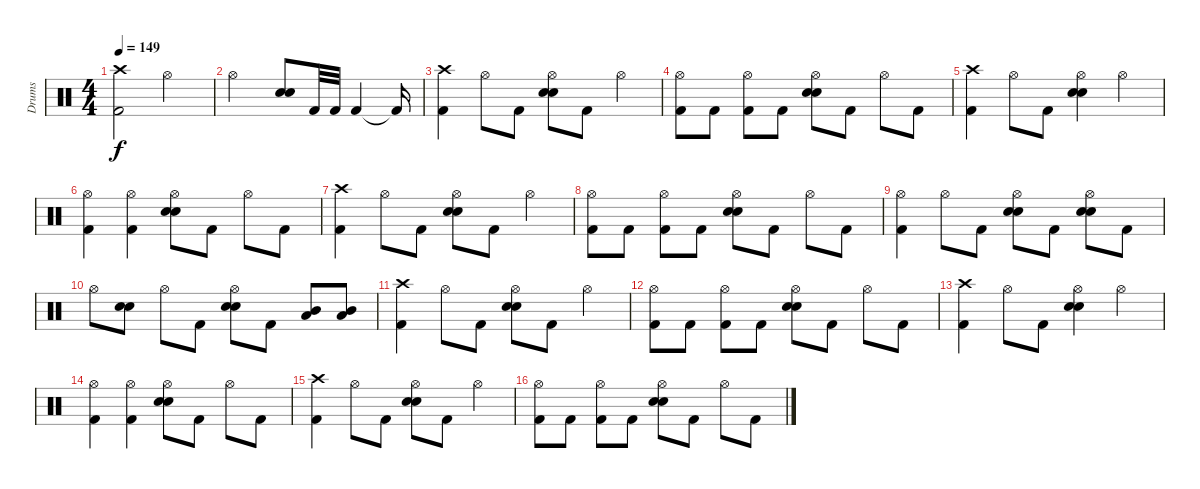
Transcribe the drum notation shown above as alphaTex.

\track ("Drums" "Drums") {instrument percussion}
\staff {score}
\articulation defaults
\ts (4 4)
\tempo 149
\clef neutral
\ks c
("Kick (hit) 2" "Crash high (hit)").2{dy f} "Hi-Hat (open)".2 |
"Hi-Hat (open)".2 ("Electric Snare (hit)" "Snare (hit) 2").8 "Kick (hit) 2".32 "Kick (hit) 2".32 "Kick (hit) 2".4 "Kick (hit) 2"{t}.16 |
("Kick (hit) 2" "Crash high (hit)").4 "Hi-Hat (open)".8 "Kick (hit) 2".8 ("Electric Snare (hit)" "Snare (hit) 2" "Hi-Hat (open)").8 "Kick (hit) 2".8 "Hi-Hat (open)".4 |
("Kick (hit) 2" "Hi-Hat (open)").8 "Kick (hit) 2".8 ("Kick (hit) 2" "Hi-Hat (open)").8 "Kick (hit) 2".8 ("Electric Snare (hit)" "Snare (hit) 2" "Hi-Hat (open)").8 "Kick (hit) 2".8 "Hi-Hat (open)".8 "Kick (hit) 2".8 |
("Kick (hit) 2" "Crash high (hit)").4 "Hi-Hat (open)".8 "Kick (hit) 2".8 ("Electric Snare (hit)" "Snare (hit) 2" "Hi-Hat (open)").4 "Hi-Hat (open)".4 |
("Kick (hit) 2" "Hi-Hat (open)").4 ("Kick (hit) 2" "Hi-Hat (open)").4 ("Electric Snare (hit)" "Snare (hit) 2" "Hi-Hat (open)").8 "Kick (hit) 2".8 "Hi-Hat (open)".8 "Kick (hit) 2".8 |
("Kick (hit) 2" "Crash high (hit)").4 "Hi-Hat (open)".8 "Kick (hit) 2".8 ("Electric Snare (hit)" "Snare (hit) 2" "Hi-Hat (open)").8 "Kick (hit) 2".8 "Hi-Hat (open)".4 |
("Kick (hit) 2" "Hi-Hat (open)").8 "Kick (hit) 2".8 ("Kick (hit) 2" "Hi-Hat (open)").8 "Kick (hit) 2".8 ("Electric Snare (hit)" "Snare (hit) 2" "Hi-Hat (open)").8 "Kick (hit) 2".8 "Hi-Hat (open)".8 "Kick (hit) 2".8 |
("Kick (hit) 2" "Hi-Hat (open)").4 "Hi-Hat (open)".8 "Kick (hit) 2".8 ("Electric Snare (hit)" "Snare (hit) 2" "Hi-Hat (open)").8 "Kick (hit) 2".8 ("Electric Snare (hit)" "Snare (hit) 2" "Hi-Hat (open)").8 "Kick (hit) 2".8 |
"Hi-Hat (open)".8 ("Electric Snare (hit)" "Snare (hit) 2").8 "Hi-Hat (open)".8 "Kick (hit) 2".8 ("Electric Snare (hit)" "Snare (hit) 2" "Hi-Hat (open)").8 "Kick (hit) 2".8 ("Mid Tom (hit)" "Low Tom (hit)").8 ("Mid Tom (hit)" "Low Tom (hit)").8 |
("Kick (hit) 2" "Crash high (hit)").4 "Hi-Hat (open)".8 "Kick (hit) 2".8 ("Electric Snare (hit)" "Snare (hit) 2" "Hi-Hat (open)").8 "Kick (hit) 2".8 "Hi-Hat (open)".4 |
("Kick (hit) 2" "Hi-Hat (open)").8 "Kick (hit) 2".8 ("Kick (hit) 2" "Hi-Hat (open)").8 "Kick (hit) 2".8 ("Electric Snare (hit)" "Snare (hit) 2" "Hi-Hat (open)").8 "Kick (hit) 2".8 "Hi-Hat (open)".8 "Kick (hit) 2".8 |
("Kick (hit) 2" "Crash high (hit)").4 "Hi-Hat (open)".8 "Kick (hit) 2".8 ("Electric Snare (hit)" "Snare (hit) 2" "Hi-Hat (open)").4 "Hi-Hat (open)".4 |
("Kick (hit) 2" "Hi-Hat (open)").4 ("Kick (hit) 2" "Hi-Hat (open)").4 ("Electric Snare (hit)" "Snare (hit) 2" "Hi-Hat (open)").8 "Kick (hit) 2".8 "Hi-Hat (open)".8 "Kick (hit) 2".8 |
("Kick (hit) 2" "Crash high (hit)").4 "Hi-Hat (open)".8 "Kick (hit) 2".8 ("Electric Snare (hit)" "Snare (hit) 2" "Hi-Hat (open)").8 "Kick (hit) 2".8 "Hi-Hat (open)".4 |
("Kick (hit) 2" "Hi-Hat (open)").8 "Kick (hit) 2".8 ("Kick (hit) 2" "Hi-Hat (open)").8 "Kick (hit) 2".8 ("Electric Snare (hit)" "Snare (hit) 2" "Hi-Hat (open)").8 "Kick (hit) 2".8 "Hi-Hat (open)".8 "Kick (hit) 2".8
